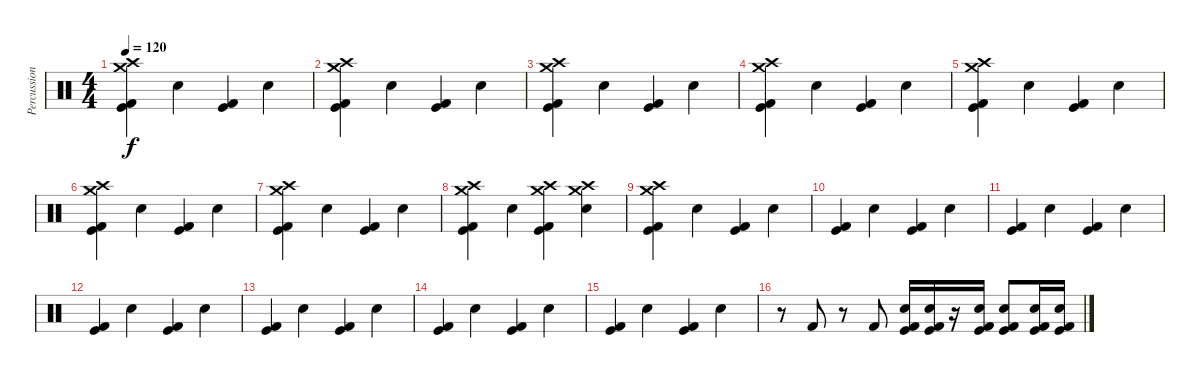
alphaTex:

\track ("Percussion" "Percussion") {instrument percussion}
\staff {score}
\articulation defaults
\ts (4 4)
\tempo 120
\clef neutral
\ks c
("Crash medium (hit)" "Crash high (hit)" "Kick (hit)" "Kick (hit) 2").4{dy f} "Snare (hit) 2".4 ("Kick (hit) 2" "Kick (hit)").4 "Snare (hit) 2".4 |
("Crash medium (hit)" "Crash high (hit)" "Kick (hit)" "Kick (hit) 2").4 "Snare (hit) 2".4 ("Kick (hit) 2" "Kick (hit)").4 "Snare (hit) 2".4 |
("Crash medium (hit)" "Crash high (hit)" "Kick (hit)" "Kick (hit) 2").4 "Snare (hit) 2".4 ("Kick (hit) 2" "Kick (hit)").4 "Snare (hit) 2".4 |
("Crash medium (hit)" "Crash high (hit)" "Kick (hit)" "Kick (hit) 2").4 "Snare (hit) 2".4 ("Kick (hit) 2" "Kick (hit)").4 "Snare (hit) 2".4 |
("Crash medium (hit)" "Crash high (hit)" "Kick (hit)" "Kick (hit) 2").4 "Snare (hit) 2".4 ("Kick (hit) 2" "Kick (hit)").4 "Snare (hit) 2".4 |
("Crash medium (hit)" "Crash high (hit)" "Kick (hit)" "Kick (hit) 2").4 "Snare (hit) 2".4 ("Kick (hit) 2" "Kick (hit)").4 "Snare (hit) 2".4 |
("Crash medium (hit)" "Crash high (hit)" "Kick (hit)" "Kick (hit) 2").4 "Snare (hit) 2".4 ("Kick (hit) 2" "Kick (hit)").4 "Snare (hit) 2".4 |
("Crash medium (hit)" "Crash high (hit)" "Kick (hit)" "Kick (hit) 2").4 "Snare (hit) 2".4 ("Crash medium (hit)" "Crash high (hit)" "Kick (hit) 2" "Kick (hit)").4 ("Crash medium (hit)" "Crash high (hit)" "Snare (hit) 2").4 |
("Crash medium (hit)" "Crash high (hit)" "Kick (hit)" "Kick (hit) 2").4 "Snare (hit) 2".4 ("Kick (hit) 2" "Kick (hit)").4 "Snare (hit) 2".4 |
("Kick (hit)" "Kick (hit) 2").4 "Snare (hit) 2".4 ("Kick (hit) 2" "Kick (hit)").4 "Snare (hit) 2".4 |
("Kick (hit)" "Kick (hit) 2").4 "Snare (hit) 2".4 ("Kick (hit) 2" "Kick (hit)").4 "Snare (hit) 2".4 |
("Kick (hit)" "Kick (hit) 2").4 "Snare (hit) 2".4 ("Kick (hit) 2" "Kick (hit)").4 "Snare (hit) 2".4 |
("Kick (hit)" "Kick (hit) 2").4 "Snare (hit) 2".4 ("Kick (hit) 2" "Kick (hit)").4 "Snare (hit) 2".4 |
("Kick (hit)" "Kick (hit) 2").4 "Snare (hit) 2".4 ("Kick (hit) 2" "Kick (hit)").4 "Snare (hit) 2".4 |
("Kick (hit)" "Kick (hit) 2").4 "Snare (hit) 2".4 ("Kick (hit) 2" "Kick (hit)").4 "Snare (hit) 2".4 |
r.8 "Kick (hit) 2".8 r.8 "Kick (hit) 2".8 ("Snare (hit) 2" "Kick (hit) 2" "Kick (hit)").16 ("Snare (hit) 2" "Kick (hit) 2" "Kick (hit)").16 r.16 ("Snare (hit) 2" "Kick (hit) 2" "Kick (hit)").16 ("Snare (hit) 2" "Kick (hit) 2" "Kick (hit)").8 ("Snare (hit) 2" "Kick (hit) 2" "Kick (hit)").16 ("Snare (hit) 2" "Kick (hit) 2" "Kick (hit)").16
